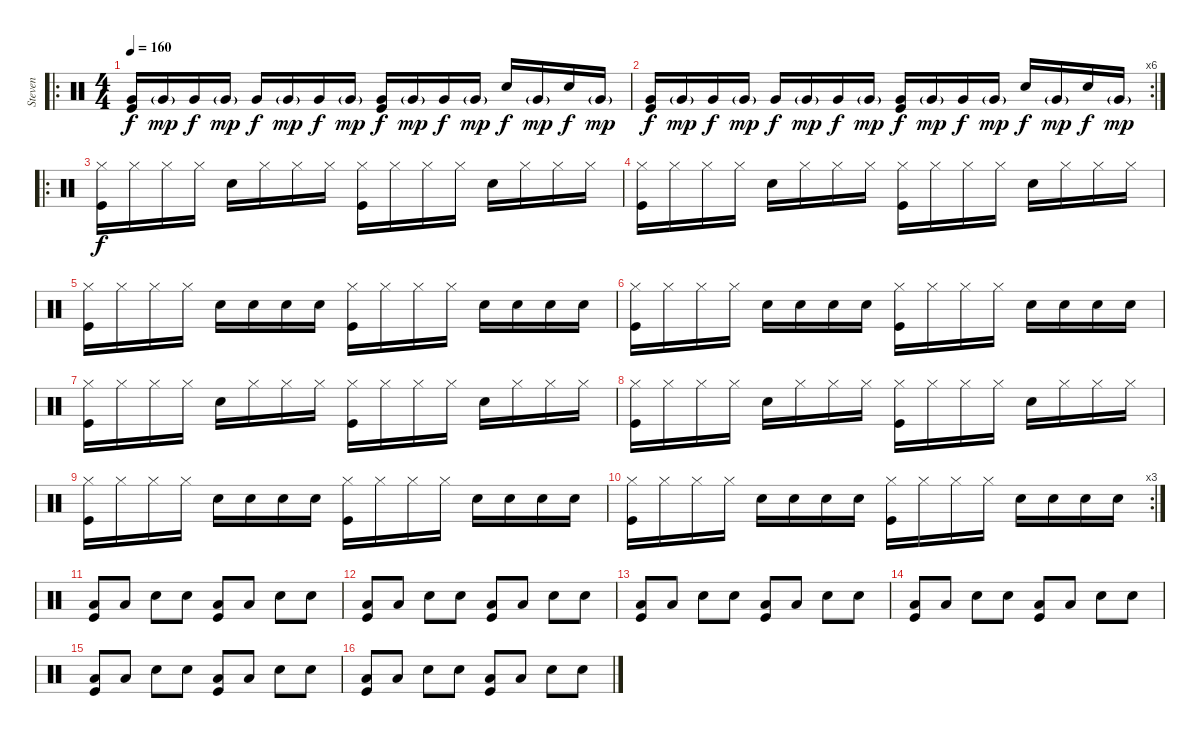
\track ("Steven" "Steven") {instrument percussion}
\staff {score}
\articulation defaults
\ro
\ts (4 4)
\tempo 160
\clef neutral
\ks c
("Very Low Tom (hit)" "Kick (hit)").16{dy f} "Very Low Tom (hit)"{g}.16{dy mp} "Very Low Tom (hit)".16{dy f} "Very Low Tom (hit)"{g}.16{dy mp} "Very Low Tom (hit)".16{dy f} "Very Low Tom (hit)"{g}.16{dy mp} "Very Low Tom (hit)".16{dy f} "Very Low Tom (hit)"{g}.16{dy mp} ("Very Low Tom (hit)" "Kick (hit)").16{dy f} "Very Low Tom (hit)"{g}.16{dy mp} "Very Low Tom (hit)".16{dy f} "Very Low Tom (hit)"{g}.16{dy mp} "Electric Snare (hit)".16{dy f} "Very Low Tom (hit)"{g}.16{dy mp} "Electric Snare (hit)".16{dy f} "Very Low Tom (hit)"{g}.16{dy mp} |
\rc 6
("Very Low Tom (hit)" "Kick (hit)").16{dy f} "Very Low Tom (hit)"{g}.16{dy mp} "Very Low Tom (hit)".16{dy f} "Very Low Tom (hit)"{g}.16{dy mp} "Very Low Tom (hit)".16{dy f} "Very Low Tom (hit)"{g}.16{dy mp} "Very Low Tom (hit)".16{dy f} "Very Low Tom (hit)"{g}.16{dy mp} ("Very Low Tom (hit)" "Kick (hit)").16{dy f} "Very Low Tom (hit)"{g}.16{dy mp} "Very Low Tom (hit)".16{dy f} "Very Low Tom (hit)"{g}.16{dy mp} "Electric Snare (hit)".16{dy f} "Very Low Tom (hit)"{g}.16{dy mp} "Electric Snare (hit)".16{dy f} "Very Low Tom (hit)"{g}.16{dy mp} |
\ro
("Hi-Hat (closed)" "Kick (hit)").16{dy f} "Hi-Hat (closed)".16 "Hi-Hat (closed)".16 "Hi-Hat (closed)".16 "Electric Snare (hit)".16 "Hi-Hat (closed)".16 "Hi-Hat (closed)".16 "Hi-Hat (closed)".16 ("Hi-Hat (closed)" "Kick (hit)").16 "Hi-Hat (closed)".16 "Hi-Hat (closed)".16 "Hi-Hat (closed)".16 "Electric Snare (hit)".16 "Hi-Hat (closed)".16 "Hi-Hat (closed)".16 "Hi-Hat (closed)".16 |
("Hi-Hat (closed)" "Kick (hit)").16 "Hi-Hat (closed)".16 "Hi-Hat (closed)".16 "Hi-Hat (closed)".16 "Electric Snare (hit)".16 "Hi-Hat (closed)".16 "Hi-Hat (closed)".16 "Hi-Hat (closed)".16 ("Hi-Hat (closed)" "Kick (hit)").16 "Hi-Hat (closed)".16 "Hi-Hat (closed)".16 "Hi-Hat (closed)".16 "Electric Snare (hit)".16 "Hi-Hat (closed)".16 "Hi-Hat (closed)".16 "Hi-Hat (closed)".16 |
("Hi-Hat (closed)" "Kick (hit)").16 "Hi-Hat (closed)".16 "Hi-Hat (closed)".16 "Hi-Hat (closed)".16 "Electric Snare (hit)".16 "Electric Snare (hit)".16 "Electric Snare (hit)".16 "Electric Snare (hit)".16 ("Hi-Hat (closed)" "Kick (hit)").16 "Hi-Hat (closed)".16 "Hi-Hat (closed)".16 "Hi-Hat (closed)".16 "Electric Snare (hit)".16 "Electric Snare (hit)".16 "Electric Snare (hit)".16 "Electric Snare (hit)".16 |
("Hi-Hat (closed)" "Kick (hit)").16 "Hi-Hat (closed)".16 "Hi-Hat (closed)".16 "Hi-Hat (closed)".16 "Electric Snare (hit)".16 "Electric Snare (hit)".16 "Electric Snare (hit)".16 "Electric Snare (hit)".16 ("Hi-Hat (closed)" "Kick (hit)").16 "Hi-Hat (closed)".16 "Hi-Hat (closed)".16 "Hi-Hat (closed)".16 "Electric Snare (hit)".16 "Electric Snare (hit)".16 "Electric Snare (hit)".16 "Electric Snare (hit)".16 |
("Hi-Hat (closed)" "Kick (hit)").16 "Hi-Hat (closed)".16 "Hi-Hat (closed)".16 "Hi-Hat (closed)".16 "Electric Snare (hit)".16 "Hi-Hat (closed)".16 "Hi-Hat (closed)".16 "Hi-Hat (closed)".16 ("Hi-Hat (closed)" "Kick (hit)").16 "Hi-Hat (closed)".16 "Hi-Hat (closed)".16 "Hi-Hat (closed)".16 "Electric Snare (hit)".16 "Hi-Hat (closed)".16 "Hi-Hat (closed)".16 "Hi-Hat (closed)".16 |
("Hi-Hat (closed)" "Kick (hit)").16 "Hi-Hat (closed)".16 "Hi-Hat (closed)".16 "Hi-Hat (closed)".16 "Electric Snare (hit)".16 "Hi-Hat (closed)".16 "Hi-Hat (closed)".16 "Hi-Hat (closed)".16 ("Hi-Hat (closed)" "Kick (hit)").16 "Hi-Hat (closed)".16 "Hi-Hat (closed)".16 "Hi-Hat (closed)".16 "Electric Snare (hit)".16 "Hi-Hat (closed)".16 "Hi-Hat (closed)".16 "Hi-Hat (closed)".16 |
("Hi-Hat (closed)" "Kick (hit)").16 "Hi-Hat (closed)".16 "Hi-Hat (closed)".16 "Hi-Hat (closed)".16 "Electric Snare (hit)".16 "Electric Snare (hit)".16 "Electric Snare (hit)".16 "Electric Snare (hit)".16 ("Hi-Hat (closed)" "Kick (hit)").16 "Hi-Hat (closed)".16 "Hi-Hat (closed)".16 "Hi-Hat (closed)".16 "Electric Snare (hit)".16 "Electric Snare (hit)".16 "Electric Snare (hit)".16 "Electric Snare (hit)".16 |
\rc 3
("Hi-Hat (closed)" "Kick (hit)").16 "Hi-Hat (closed)".16 "Hi-Hat (closed)".16 "Hi-Hat (closed)".16 "Electric Snare (hit)".16 "Electric Snare (hit)".16 "Electric Snare (hit)".16 "Electric Snare (hit)".16 ("Hi-Hat (closed)" "Kick (hit)").16 "Hi-Hat (closed)".16 "Hi-Hat (closed)".16 "Hi-Hat (closed)".16 "Electric Snare (hit)".16 "Electric Snare (hit)".16 "Electric Snare (hit)".16 "Electric Snare (hit)".16 |
("Low Floor Tom (hit)" "Kick (hit)").8 "Low Floor Tom (hit)".8 "Electric Snare (hit)".8 "Electric Snare (hit)".8 ("Low Floor Tom (hit)" "Kick (hit)").8 "Low Floor Tom (hit)".8 "Electric Snare (hit)".8 "Electric Snare (hit)".8 |
("Low Floor Tom (hit)" "Kick (hit)").8 "Low Floor Tom (hit)".8 "Electric Snare (hit)".8 "Electric Snare (hit)".8 ("Low Floor Tom (hit)" "Kick (hit)").8 "Low Floor Tom (hit)".8 "Electric Snare (hit)".8 "Electric Snare (hit)".8 |
("Low Floor Tom (hit)" "Kick (hit)").8 "Low Floor Tom (hit)".8 "Electric Snare (hit)".8 "Electric Snare (hit)".8 ("Low Floor Tom (hit)" "Kick (hit)").8 "Low Floor Tom (hit)".8 "Electric Snare (hit)".8 "Electric Snare (hit)".8 |
("Low Floor Tom (hit)" "Kick (hit)").8 "Low Floor Tom (hit)".8 "Electric Snare (hit)".8 "Electric Snare (hit)".8 ("Low Floor Tom (hit)" "Kick (hit)").8 "Low Floor Tom (hit)".8 "Electric Snare (hit)".8 "Electric Snare (hit)".8 |
("Low Floor Tom (hit)" "Kick (hit)").8 "Low Floor Tom (hit)".8 "Electric Snare (hit)".8 "Electric Snare (hit)".8 ("Low Floor Tom (hit)" "Kick (hit)").8 "Low Floor Tom (hit)".8 "Electric Snare (hit)".8 "Electric Snare (hit)".8 |
("Low Floor Tom (hit)" "Kick (hit)").8 "Low Floor Tom (hit)".8 "Electric Snare (hit)".8 "Electric Snare (hit)".8 ("Low Floor Tom (hit)" "Kick (hit)").8 "Low Floor Tom (hit)".8 "Electric Snare (hit)".8 "Electric Snare (hit)".8
